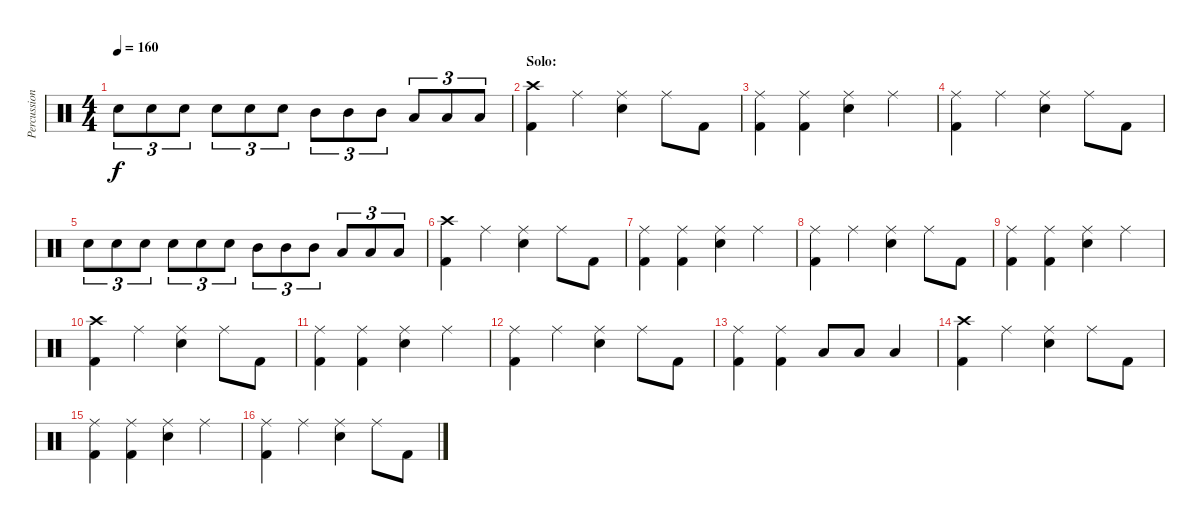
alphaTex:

\track ("Percussion" "Percussion") {instrument percussion}
\staff {score}
\articulation defaults
\ts (4 4)
\tempo 160
\clef neutral
\ks c "Electric Snare (hit)".8{tu (3 2) dy f} "Electric Snare (hit)".8{tu (3 2)} "Electric Snare (hit)".8{tu (3 2)} "Electric Snare (hit)".8{tu (3 2)} "Electric Snare (hit)".8{tu (3 2)} "Electric Snare (hit)".8{tu (3 2)} "Mid Tom (hit)".8{tu (3 2)} "Mid Tom (hit)".8{tu (3 2)} "Mid Tom (hit)".8{tu (3 2)} "Low Tom (hit)".8{tu (3 2)} "Low Tom (hit)".8{tu (3 2)} "Low Tom (hit)".8{tu (3 2)}
|
\section ("" "Solo:")
("Crash high (hit)" "Kick (hit) 2").4 "Ride (middle)".4 ("Ride (middle)" "Electric Snare (hit)").4 "Ride (middle)".8 "Kick (hit) 2".8 |
("Ride (middle)" "Kick (hit) 2").4 ("Ride (middle)" "Kick (hit) 2").4 ("Ride (middle)" "Electric Snare (hit)").4 "Ride (middle)".4 |
("Ride (middle)" "Kick (hit) 2").4 "Ride (middle)".4 ("Ride (middle)" "Electric Snare (hit)").4 "Ride (middle)".8 "Kick (hit) 2".8 |
"Electric Snare (hit)".8{tu (3 2)} "Electric Snare (hit)".8{tu (3 2)} "Electric Snare (hit)".8{tu (3 2)} "Electric Snare (hit)".8{tu (3 2)} "Electric Snare (hit)".8{tu (3 2)} "Electric Snare (hit)".8{tu (3 2)} "Mid Tom (hit)".8{tu (3 2)} "Mid Tom (hit)".8{tu (3 2)} "Mid Tom (hit)".8{tu (3 2)} "Low Tom (hit)".8{tu (3 2)} "Low Tom (hit)".8{tu (3 2)} "Low Tom (hit)".8{tu (3 2)} |
("Crash high (hit)" "Kick (hit) 2").4 "Ride (middle)".4 ("Ride (middle)" "Electric Snare (hit)").4 "Ride (middle)".8 "Kick (hit) 2".8 |
("Ride (middle)" "Kick (hit) 2").4 ("Ride (middle)" "Kick (hit) 2").4 ("Ride (middle)" "Electric Snare (hit)").4 "Ride (middle)".4 |
("Ride (middle)" "Kick (hit) 2").4 "Ride (middle)".4 ("Ride (middle)" "Electric Snare (hit)").4 "Ride (middle)".8 "Kick (hit) 2".8 |
("Ride (middle)" "Kick (hit) 2").4 ("Ride (middle)" "Kick (hit) 2").4 ("Ride (middle)" "Electric Snare (hit)").4 "Ride (middle)".4 |
("Crash high (hit)" "Kick (hit) 2").4 "Ride (middle)".4 ("Ride (middle)" "Electric Snare (hit)").4 "Ride (middle)".8 "Kick (hit) 2".8 |
("Ride (middle)" "Kick (hit) 2").4 ("Ride (middle)" "Kick (hit) 2").4 ("Ride (middle)" "Electric Snare (hit)").4 "Ride (middle)".4 |
("Ride (middle)" "Kick (hit) 2").4 "Ride (middle)".4 ("Ride (middle)" "Electric Snare (hit)").4 "Ride (middle)".8 "Kick (hit) 2".8 |
("Ride (middle)" "Kick (hit) 2").4 ("Ride (middle)" "Kick (hit) 2").4 "Low Tom (hit)".8 "Low Tom (hit)".8 "Low Tom (hit)".4 |
("Crash high (hit)" "Kick (hit) 2").4 "Ride (middle)".4 ("Ride (middle)" "Electric Snare (hit)").4 "Ride (middle)".8 "Kick (hit) 2".8 |
("Ride (middle)" "Kick (hit) 2").4 ("Ride (middle)" "Kick (hit) 2").4 ("Ride (middle)" "Electric Snare (hit)").4 "Ride (middle)".4 |
("Ride (middle)" "Kick (hit) 2").4 "Ride (middle)".4 ("Ride (middle)" "Electric Snare (hit)").4 "Ride (middle)".8 "Kick (hit) 2".8
